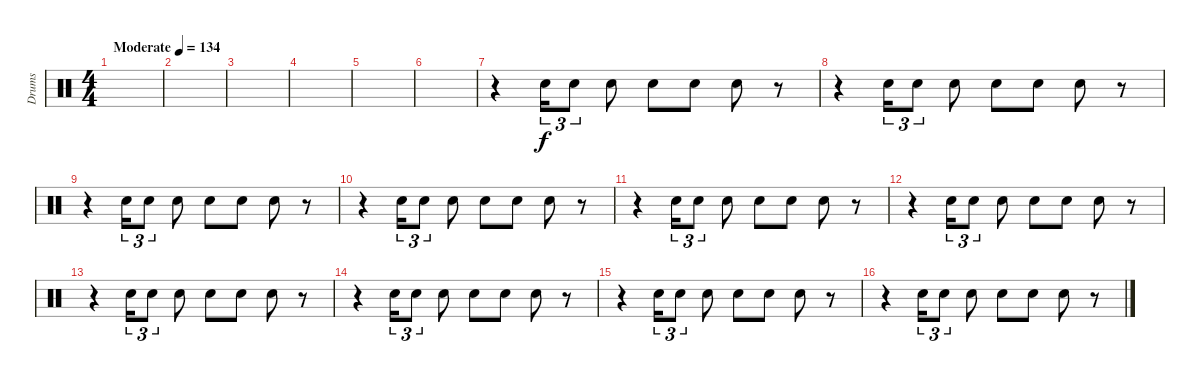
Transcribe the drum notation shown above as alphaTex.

\track ("Drums" "Drums") {instrument percussion}
\staff {score}
\articulation defaults
\ts (4 4)
\tempo (134 "Moderate")
\clef neutral
\ks c
|
|
|
|
|
|
r.4 "Snare (hit) 2".16{tu (3 2)} "Snare (hit) 2".8{tu (3 2)} "Snare (hit) 2".8 "Snare (hit) 2".8 "Snare (hit) 2".8 "Snare (hit) 2".8 r.8 |
r.4 "Snare (hit) 2".16{tu (3 2)} "Snare (hit) 2".8{tu (3 2)} "Snare (hit) 2".8 "Snare (hit) 2".8 "Snare (hit) 2".8 "Snare (hit) 2".8 r.8 |
r.4 "Snare (hit) 2".16{tu (3 2)} "Snare (hit) 2".8{tu (3 2)} "Snare (hit) 2".8 "Snare (hit) 2".8 "Snare (hit) 2".8 "Snare (hit) 2".8 r.8 |
r.4 "Snare (hit) 2".16{tu (3 2)} "Snare (hit) 2".8{tu (3 2)} "Snare (hit) 2".8 "Snare (hit) 2".8 "Snare (hit) 2".8 "Snare (hit) 2".8 r.8 |
r.4 "Snare (hit) 2".16{tu (3 2)} "Snare (hit) 2".8{tu (3 2)} "Snare (hit) 2".8 "Snare (hit) 2".8 "Snare (hit) 2".8 "Snare (hit) 2".8 r.8 |
r.4 "Snare (hit) 2".16{tu (3 2)} "Snare (hit) 2".8{tu (3 2)} "Snare (hit) 2".8 "Snare (hit) 2".8 "Snare (hit) 2".8 "Snare (hit) 2".8 r.8 |
r.4 "Snare (hit) 2".16{tu (3 2)} "Snare (hit) 2".8{tu (3 2)} "Snare (hit) 2".8 "Snare (hit) 2".8 "Snare (hit) 2".8 "Snare (hit) 2".8 r.8 |
r.4 "Snare (hit) 2".16{tu (3 2)} "Snare (hit) 2".8{tu (3 2)} "Snare (hit) 2".8 "Snare (hit) 2".8 "Snare (hit) 2".8 "Snare (hit) 2".8 r.8 |
r.4 "Snare (hit) 2".16{tu (3 2)} "Snare (hit) 2".8{tu (3 2)} "Snare (hit) 2".8 "Snare (hit) 2".8 "Snare (hit) 2".8 "Snare (hit) 2".8 r.8 |
r.4 "Snare (hit) 2".16{tu (3 2)} "Snare (hit) 2".8{tu (3 2)} "Snare (hit) 2".8 "Snare (hit) 2".8 "Snare (hit) 2".8 "Snare (hit) 2".8 r.8
